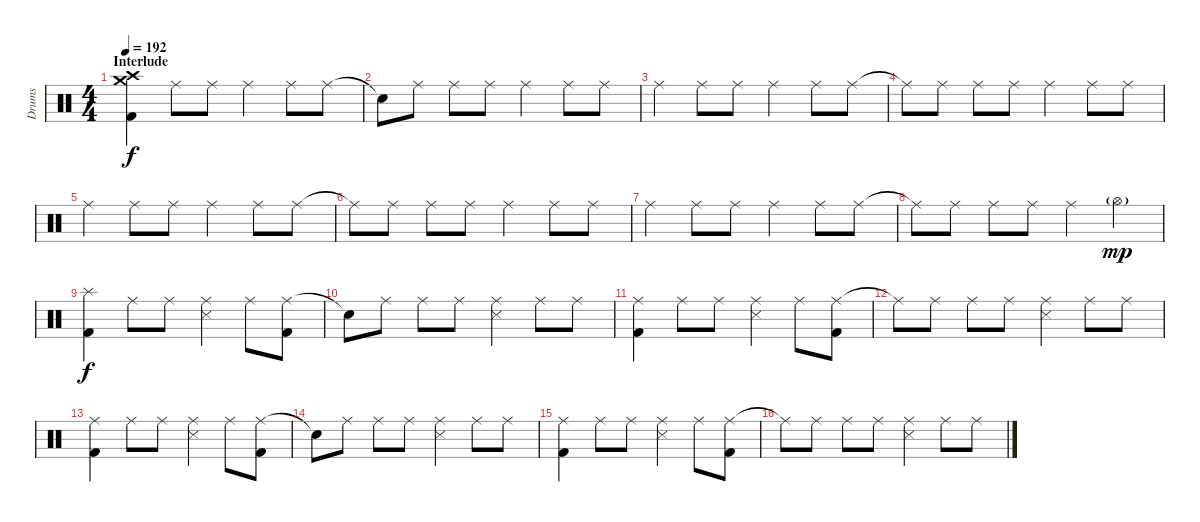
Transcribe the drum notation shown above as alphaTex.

\track ("Drums" "Drums") {instrument percussion}
\staff {score}
\articulation defaults
\ts (4 4)
\section ("" "Interlude")
\tempo 192
\clef neutral
\ks c
("Crash high (hit)" "Crash medium (hit)" "Kick (hit) 2").4{dy f} "Ride (middle)".8 "Ride (middle)".8 "Ride (middle)".4 "Ride (middle)".8 "Ride (middle)".8 |
"Snare (hit)"{t}.8 "Ride (middle)".8 "Ride (middle)".8 "Ride (middle)".8 "Ride (middle)".4 "Ride (middle)".8 "Ride (middle)".8 |
"Ride (middle)".4 "Ride (middle)".8 "Ride (middle)".8 "Ride (middle)".4 "Ride (middle)".8 "Ride (middle)".8 |
"Ride (middle)"{t}.8 "Ride (middle)".8 "Ride (middle)".8 "Ride (middle)".8 "Ride (middle)".4 "Ride (middle)".8 "Ride (middle)".8 |
"Ride (middle)".4 "Ride (middle)".8 "Ride (middle)".8 "Ride (middle)".4 "Ride (middle)".8 "Ride (middle)".8 |
"Ride (middle)"{t}.8 "Ride (middle)".8 "Ride (middle)".8 "Ride (middle)".8 "Ride (middle)".4 "Ride (middle)".8 "Ride (middle)".8 |
"Ride (middle)".4 "Ride (middle)".8 "Ride (middle)".8 "Ride (middle)".4 "Ride (middle)".8 "Ride (middle)".8 |
"Ride (middle)"{t}.8 "Ride (middle)".8 "Ride (middle)".8 "Ride (middle)".8 "Ride (middle)".4 "Hi-Hat (open)"{g}.4{dy mp} |
("Splash (hit)" "Kick (hit) 2").4{dy f} "Ride (middle)".8 "Ride (middle)".8 ("Ride (middle)" "Snare (side stick) 3").4 "Ride (middle)".8 ("Ride (middle)" "Kick (hit) 2").8 |
"Snare (hit)"{t}.8 "Ride (middle)".8 "Ride (middle)".8 "Ride (middle)".8 ("Ride (middle)" "Snare (side stick) 3").4 "Ride (middle)".8 "Ride (middle)".8 |
("Ride (middle)" "Kick (hit) 2").4 "Ride (middle)".8 "Ride (middle)".8 ("Ride (middle)" "Snare (side stick) 3").4 "Ride (middle)".8 ("Ride (middle)" "Kick (hit) 2").8 |
"Ride (middle)"{t}.8 "Ride (middle)".8 "Ride (middle)".8 "Ride (middle)".8 ("Ride (middle)" "Snare (side stick) 3").4 "Ride (middle)".8 "Ride (middle)".8 |
("Ride (middle)" "Kick (hit) 2").4 "Ride (middle)".8 "Ride (middle)".8 ("Ride (middle)" "Snare (side stick) 3").4 "Ride (middle)".8 ("Ride (middle)" "Kick (hit) 2").8 |
"Snare (hit)"{t}.8 "Ride (middle)".8 "Ride (middle)".8 "Ride (middle)".8 ("Ride (middle)" "Snare (side stick) 3").4 "Ride (middle)".8 "Ride (middle)".8 |
("Ride (middle)" "Kick (hit) 2").4 "Ride (middle)".8 "Ride (middle)".8 ("Ride (middle)" "Snare (side stick) 3").4 "Ride (middle)".8 ("Ride (middle)" "Kick (hit) 2").8 |
"Ride (middle)"{t}.8 "Ride (middle)".8 "Ride (middle)".8 "Ride (middle)".8 ("Ride (middle)" "Snare (side stick) 3").4 "Ride (middle)".8 "Ride (middle)".8
